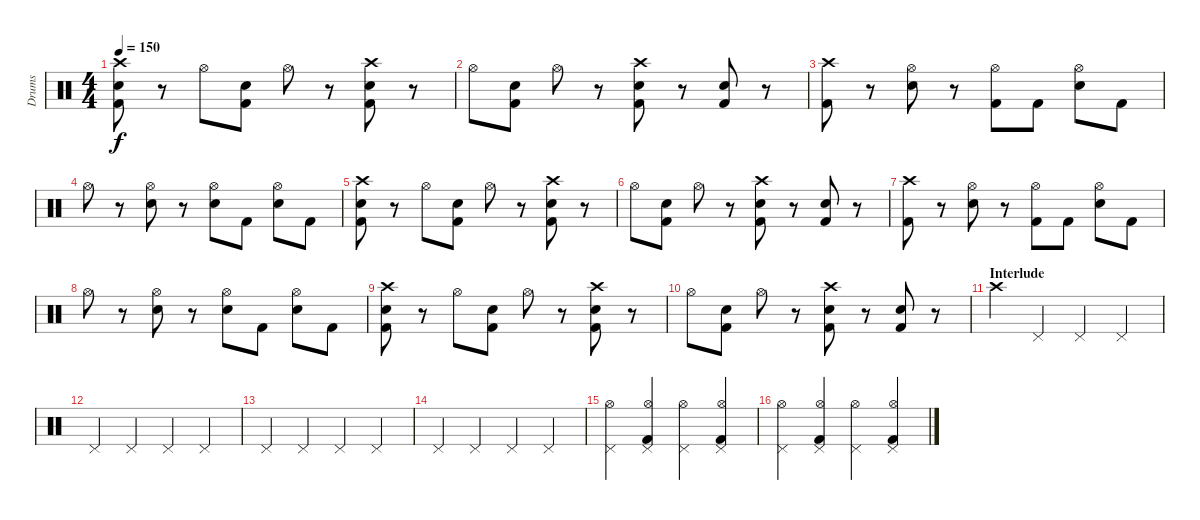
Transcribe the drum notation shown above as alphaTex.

\track ("Drums" "Drums") {instrument percussion}
\staff {score}
\articulation defaults
\ts (4 4)
\tempo 150
\clef neutral
\ks c
("Crash high (hit)" "Electric Snare (hit)" "Kick (hit) 2").8{dy f} r.8 "Hi-Hat (open)".8 ("Electric Snare (hit)" "Kick (hit) 2").8 "Hi-Hat (open)".8 r.8 ("Crash high (hit)" "Electric Snare (hit)" "Kick (hit) 2").8 r.8 |
"Hi-Hat (open)".8 ("Electric Snare (hit)" "Kick (hit) 2").8 "Hi-Hat (open)".8 r.8 ("Crash high (hit)" "Electric Snare (hit)" "Kick (hit) 2").8 r.8 ("Electric Snare (hit)" "Kick (hit) 2").8 r.8 |
("Crash high (hit)" "Kick (hit) 2").8 r.8 ("Hi-Hat (open)" "Electric Snare (hit)").8 r.8 ("Hi-Hat (open)" "Kick (hit) 2").8 "Kick (hit) 2".8 ("Hi-Hat (open)" "Electric Snare (hit)").8 "Kick (hit) 2".8 |
"Hi-Hat (open)".8 r.8 ("Hi-Hat (open)" "Electric Snare (hit)").8 r.8 ("Hi-Hat (open)" "Electric Snare (hit)").8 "Kick (hit) 2".8 ("Hi-Hat (open)" "Electric Snare (hit)").8 "Kick (hit) 2".8 |
("Crash high (hit)" "Electric Snare (hit)" "Kick (hit) 2").8 r.8 "Hi-Hat (open)".8 ("Electric Snare (hit)" "Kick (hit) 2").8 "Hi-Hat (open)".8 r.8 ("Crash high (hit)" "Electric Snare (hit)" "Kick (hit) 2").8 r.8 |
"Hi-Hat (open)".8 ("Electric Snare (hit)" "Kick (hit) 2").8 "Hi-Hat (open)".8 r.8 ("Crash high (hit)" "Electric Snare (hit)" "Kick (hit) 2").8 r.8 ("Electric Snare (hit)" "Kick (hit) 2").8 r.8 |
("Crash high (hit)" "Kick (hit) 2").8 r.8 ("Hi-Hat (open)" "Electric Snare (hit)").8 r.8 ("Hi-Hat (open)" "Kick (hit) 2").8 "Kick (hit) 2".8 ("Hi-Hat (open)" "Electric Snare (hit)").8 "Kick (hit) 2".8 |
"Hi-Hat (open)".8 r.8 ("Hi-Hat (open)" "Electric Snare (hit)").8 r.8 ("Hi-Hat (open)" "Electric Snare (hit)").8 "Kick (hit) 2".8 ("Hi-Hat (open)" "Electric Snare (hit)").8 "Kick (hit) 2".8 |
("Crash high (hit)" "Electric Snare (hit)" "Kick (hit) 2").8 r.8 "Hi-Hat (open)".8 ("Electric Snare (hit)" "Kick (hit) 2").8 "Hi-Hat (open)".8 r.8 ("Crash high (hit)" "Electric Snare (hit)" "Kick (hit) 2").8 r.8 |
"Hi-Hat (open)".8 ("Electric Snare (hit)" "Kick (hit) 2").8 "Hi-Hat (open)".8 r.8 ("Crash high (hit)" "Electric Snare (hit)" "Kick (hit) 2").8 r.8 ("Electric Snare (hit)" "Kick (hit) 2").8 r.8 |
\section ("" "Interlude")
"Crash high (hit)".4 "Pedal Hi-Hat (hit)".4 "Pedal Hi-Hat (hit)".4 "Pedal Hi-Hat (hit)".4 |
"Pedal Hi-Hat (hit)".4 "Pedal Hi-Hat (hit)".4 "Pedal Hi-Hat (hit)".4 "Pedal Hi-Hat (hit)".4 |
"Pedal Hi-Hat (hit)".4 "Pedal Hi-Hat (hit)".4 "Pedal Hi-Hat (hit)".4 "Pedal Hi-Hat (hit)".4 |
"Pedal Hi-Hat (hit)".4 "Pedal Hi-Hat (hit)".4 "Pedal Hi-Hat (hit)".4 "Pedal Hi-Hat (hit)".4 |
("Pedal Hi-Hat (hit)" "Hi-Hat (open)").4 ("Pedal Hi-Hat (hit)" "Hi-Hat (open)" "Kick (hit) 2").4 ("Pedal Hi-Hat (hit)" "Hi-Hat (open)").4 ("Pedal Hi-Hat (hit)" "Hi-Hat (open)" "Kick (hit) 2").4 |
("Pedal Hi-Hat (hit)" "Hi-Hat (open)").4 ("Pedal Hi-Hat (hit)" "Hi-Hat (open)" "Kick (hit) 2").4 ("Pedal Hi-Hat (hit)" "Hi-Hat (open)").4 ("Pedal Hi-Hat (hit)" "Hi-Hat (open)" "Kick (hit) 2").4
